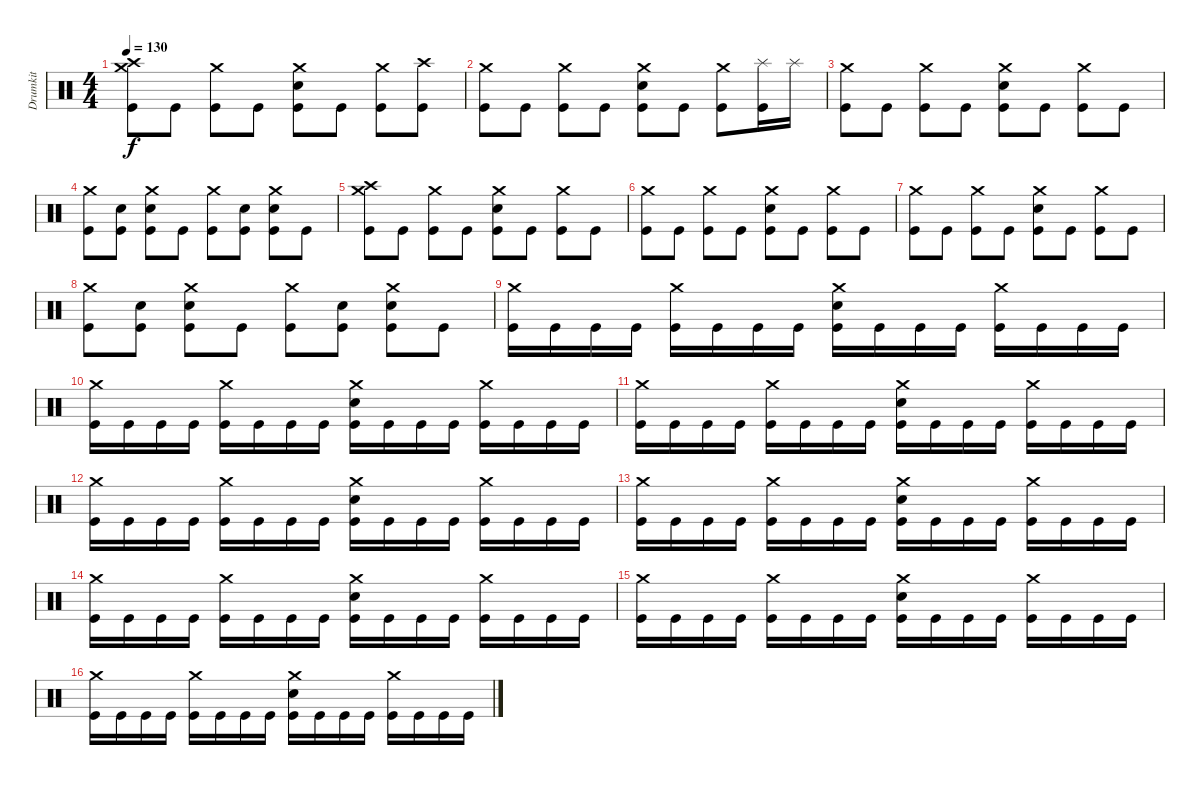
\track ("Drumkit" "Drumkit") {instrument percussion}
\staff {score}
\articulation defaults
\ts (4 4)
\tempo 130
\clef neutral
\ks c
("Crash medium (hit)" "Crash high (hit)" "Kick (hit)").8{dy f} "Kick (hit)".8 ("Crash medium (hit)" "Kick (hit)").8 "Kick (hit)".8 ("Crash medium (hit)" "Snare (hit) 2" "Kick (hit)").8 "Kick (hit)".8 ("Crash medium (hit)" "Kick (hit)").8 ("Crash high (hit)" "Kick (hit)").8 |
("Crash medium (hit)" "Kick (hit)").8 "Kick (hit)".8 ("Crash medium (hit)" "Kick (hit)").8 "Kick (hit)".8 ("Crash medium (hit)" "Snare (hit) 2" "Kick (hit)").8 "Kick (hit)".8 ("Crash medium (hit)" "Kick (hit)").8 ("Splash (hit)" "Kick (hit)").16 "Splash (hit)".16 |
("Crash medium (hit)" "Kick (hit)").8 "Kick (hit)".8 ("Crash medium (hit)" "Kick (hit)").8 "Kick (hit)".8 ("Crash medium (hit)" "Snare (hit) 2" "Kick (hit)").8 "Kick (hit)".8 ("Crash medium (hit)" "Kick (hit)").8 "Kick (hit)".8 |
("Crash medium (hit)" "Kick (hit)").8 ("Snare (hit) 2" "Kick (hit)").8 ("Crash medium (hit)" "Snare (hit) 2" "Kick (hit)").8 "Kick (hit)".8 ("Crash medium (hit)" "Kick (hit)").8 ("Snare (hit) 2" "Kick (hit)").8 ("Crash medium (hit)" "Snare (hit) 2" "Kick (hit)").8 "Kick (hit)".8 |
("Crash medium (hit)" "Crash high (hit)" "Kick (hit)").8 "Kick (hit)".8 ("Crash medium (hit)" "Kick (hit)").8 "Kick (hit)".8 ("Crash medium (hit)" "Snare (hit) 2" "Kick (hit)").8 "Kick (hit)".8 ("Crash medium (hit)" "Kick (hit)").8 "Kick (hit)".8 |
("Crash medium (hit)" "Kick (hit)").8 "Kick (hit)".8 ("Crash medium (hit)" "Kick (hit)").8 "Kick (hit)".8 ("Crash medium (hit)" "Snare (hit) 2" "Kick (hit)").8 "Kick (hit)".8 ("Crash medium (hit)" "Kick (hit)").8 "Kick (hit)".8 |
("Crash medium (hit)" "Kick (hit)").8 "Kick (hit)".8 ("Crash medium (hit)" "Kick (hit)").8 "Kick (hit)".8 ("Crash medium (hit)" "Snare (hit) 2" "Kick (hit)").8 "Kick (hit)".8 ("Crash medium (hit)" "Kick (hit)").8 "Kick (hit)".8 |
("Crash medium (hit)" "Kick (hit)").8 ("Snare (hit) 2" "Kick (hit)").8 ("Crash medium (hit)" "Snare (hit) 2" "Kick (hit)").8 "Kick (hit)".8 ("Crash medium (hit)" "Kick (hit)").8 ("Snare (hit) 2" "Kick (hit)").8 ("Crash medium (hit)" "Snare (hit) 2" "Kick (hit)").8 "Kick (hit)".8 |
("Crash medium (hit)" "Kick (hit)").16 "Kick (hit)".16 "Kick (hit)".16 "Kick (hit)".16 ("Crash medium (hit)" "Kick (hit)").16 "Kick (hit)".16 "Kick (hit)".16 "Kick (hit)".16 ("Crash medium (hit)" "Snare (hit) 2" "Kick (hit)").16 "Kick (hit)".16 "Kick (hit)".16 "Kick (hit)".16 ("Crash medium (hit)" "Kick (hit)").16 "Kick (hit)".16 "Kick (hit)".16 "Kick (hit)".16 |
("Crash medium (hit)" "Kick (hit)").16 "Kick (hit)".16 "Kick (hit)".16 "Kick (hit)".16 ("Crash medium (hit)" "Kick (hit)").16 "Kick (hit)".16 "Kick (hit)".16 "Kick (hit)".16 ("Crash medium (hit)" "Snare (hit) 2" "Kick (hit)").16 "Kick (hit)".16 "Kick (hit)".16 "Kick (hit)".16 ("Crash medium (hit)" "Kick (hit)").16 "Kick (hit)".16 "Kick (hit)".16 "Kick (hit)".16 |
("Crash medium (hit)" "Kick (hit)").16 "Kick (hit)".16 "Kick (hit)".16 "Kick (hit)".16 ("Crash medium (hit)" "Kick (hit)").16 "Kick (hit)".16 "Kick (hit)".16 "Kick (hit)".16 ("Crash medium (hit)" "Snare (hit) 2" "Kick (hit)").16 "Kick (hit)".16 "Kick (hit)".16 "Kick (hit)".16 ("Crash medium (hit)" "Kick (hit)").16 "Kick (hit)".16 "Kick (hit)".16 "Kick (hit)".16 |
("Crash medium (hit)" "Kick (hit)").16 "Kick (hit)".16 "Kick (hit)".16 "Kick (hit)".16 ("Crash medium (hit)" "Kick (hit)").16 "Kick (hit)".16 "Kick (hit)".16 "Kick (hit)".16 ("Crash medium (hit)" "Snare (hit) 2" "Kick (hit)").16 "Kick (hit)".16 "Kick (hit)".16 "Kick (hit)".16 ("Crash medium (hit)" "Kick (hit)").16 "Kick (hit)".16 "Kick (hit)".16 "Kick (hit)".16 |
("Crash medium (hit)" "Kick (hit)").16 "Kick (hit)".16 "Kick (hit)".16 "Kick (hit)".16 ("Crash medium (hit)" "Kick (hit)").16 "Kick (hit)".16 "Kick (hit)".16 "Kick (hit)".16 ("Crash medium (hit)" "Snare (hit) 2" "Kick (hit)").16 "Kick (hit)".16 "Kick (hit)".16 "Kick (hit)".16 ("Crash medium (hit)" "Kick (hit)").16 "Kick (hit)".16 "Kick (hit)".16 "Kick (hit)".16 |
("Crash medium (hit)" "Kick (hit)").16 "Kick (hit)".16 "Kick (hit)".16 "Kick (hit)".16 ("Crash medium (hit)" "Kick (hit)").16 "Kick (hit)".16 "Kick (hit)".16 "Kick (hit)".16 ("Crash medium (hit)" "Snare (hit) 2" "Kick (hit)").16 "Kick (hit)".16 "Kick (hit)".16 "Kick (hit)".16 ("Crash medium (hit)" "Kick (hit)").16 "Kick (hit)".16 "Kick (hit)".16 "Kick (hit)".16 |
("Crash medium (hit)" "Kick (hit)").16 "Kick (hit)".16 "Kick (hit)".16 "Kick (hit)".16 ("Crash medium (hit)" "Kick (hit)").16 "Kick (hit)".16 "Kick (hit)".16 "Kick (hit)".16 ("Crash medium (hit)" "Snare (hit) 2" "Kick (hit)").16 "Kick (hit)".16 "Kick (hit)".16 "Kick (hit)".16 ("Crash medium (hit)" "Kick (hit)").16 "Kick (hit)".16 "Kick (hit)".16 "Kick (hit)".16 |
("Crash medium (hit)" "Kick (hit)").16 "Kick (hit)".16 "Kick (hit)".16 "Kick (hit)".16 ("Crash medium (hit)" "Kick (hit)").16 "Kick (hit)".16 "Kick (hit)".16 "Kick (hit)".16 ("Crash medium (hit)" "Snare (hit) 2" "Kick (hit)").16 "Kick (hit)".16 "Kick (hit)".16 "Kick (hit)".16 ("Crash medium (hit)" "Kick (hit)").16 "Kick (hit)".16 "Kick (hit)".16 "Kick (hit)".16
